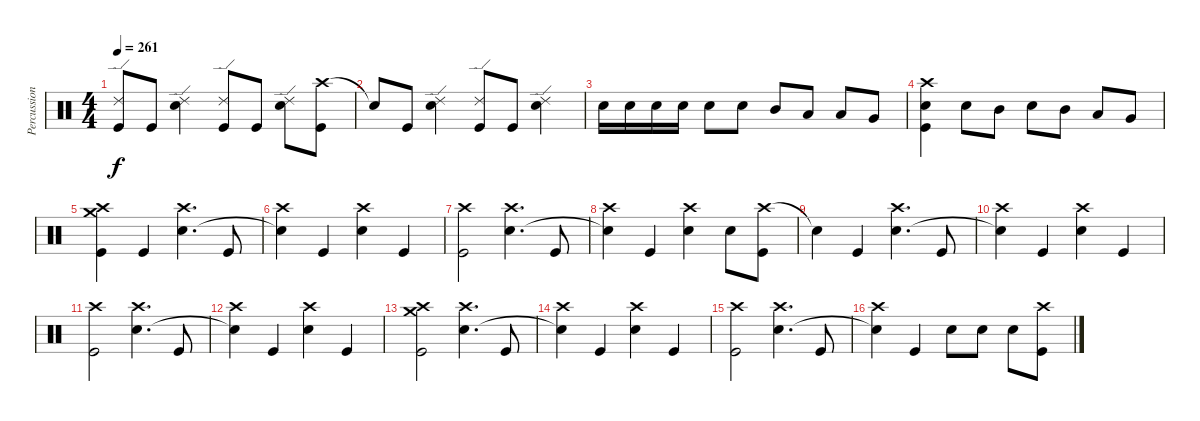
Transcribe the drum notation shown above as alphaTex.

\track ("Percussion" "Percussion") {instrument percussion}
\staff {score}
\articulation defaults
\ts (4 4)
\tempo 261
\clef neutral
\ks c
("Ride (edge) 2"{t} "Kick (hit)"{t}).8{dy f} "Kick (hit)".8 ("Ride (edge) 2" "Electric Snare (hit)").4 ("Ride (edge) 2" "Kick (hit)").8 "Kick (hit)".8 ("Ride (edge) 2" "Electric Snare (hit)").8 ("Crash high (hit)" "Kick (hit)").8 |
"Snare (hit)"{t}.8 "Kick (hit)".8 ("Ride (edge) 2" "Electric Snare (hit)").4 ("Ride (edge) 2" "Kick (hit)").8 "Kick (hit)".8 ("Ride (edge) 2" "Electric Snare (hit)").4 |
"Electric Snare (hit)".16 "Electric Snare (hit)".16 "Electric Snare (hit)".16 "Electric Snare (hit)".16 "Electric Snare (hit)".8 "Electric Snare (hit)".8 "Mid Tom (hit)".8 "Low Tom (hit)".8 "Low Tom (hit)".8 "Very Low Tom (hit)".8 |
("Crash high (hit)" "Electric Snare (hit)" "Kick (hit)").4 "Electric Snare (hit)".8 "Mid Tom (hit)".8 "Electric Snare (hit)".8 "Mid Tom (hit)".8 "Low Tom (hit)".8 "Very Low Tom (hit)".8 |
("Crash high (hit)" "Crash medium (hit)" "Kick (hit)").4 "Kick (hit)".4 ("Crash high (hit)" "Electric Snare (hit)").4{d} "Kick (hit)".8 |
("Crash high (hit)" "Snare (hit)"{t}).4 "Kick (hit)".4 ("Crash high (hit)" "Electric Snare (hit)").4 "Kick (hit)".4 |
("Crash high (hit)" "Kick (hit)").2 ("Crash high (hit)" "Electric Snare (hit)").4{d} "Kick (hit)".8 |
("Crash high (hit)" "Snare (hit)"{t}).4 "Kick (hit)".4 ("Crash high (hit)" "Electric Snare (hit)").4 "Electric Snare (hit)".8 ("Crash high (hit)" "Kick (hit)").8 |
"Snare (hit)"{t}.4 "Kick (hit)".4 ("Crash high (hit)" "Electric Snare (hit)").4{d} "Kick (hit)".8 |
("Crash high (hit)" "Snare (hit)"{t}).4 "Kick (hit)".4 ("Crash high (hit)" "Electric Snare (hit)").4 "Kick (hit)".4 |
("Crash high (hit)" "Kick (hit)").2 ("Crash high (hit)" "Electric Snare (hit)").4{d} "Kick (hit)".8 |
("Crash high (hit)" "Snare (hit)"{t}).4 "Kick (hit)".4 ("Crash high (hit)" "Electric Snare (hit)").4 "Kick (hit)".4 |
("Crash high (hit)" "Crash medium (hit)" "Kick (hit)").2 ("Crash high (hit)" "Electric Snare (hit)").4{d} "Kick (hit)".8 |
("Crash high (hit)" "Snare (hit)"{t}).4 "Kick (hit)".4 ("Crash high (hit)" "Electric Snare (hit)").4 "Kick (hit)".4 |
("Crash high (hit)" "Kick (hit)").2 ("Crash high (hit)" "Electric Snare (hit)").4{d} "Kick (hit)".8 |
("Crash high (hit)" "Snare (hit)"{t}).4 "Kick (hit)".4 "Electric Snare (hit)".8 "Electric Snare (hit)".8 "Electric Snare (hit)".8 ("Crash high (hit)" "Kick (hit)").8
